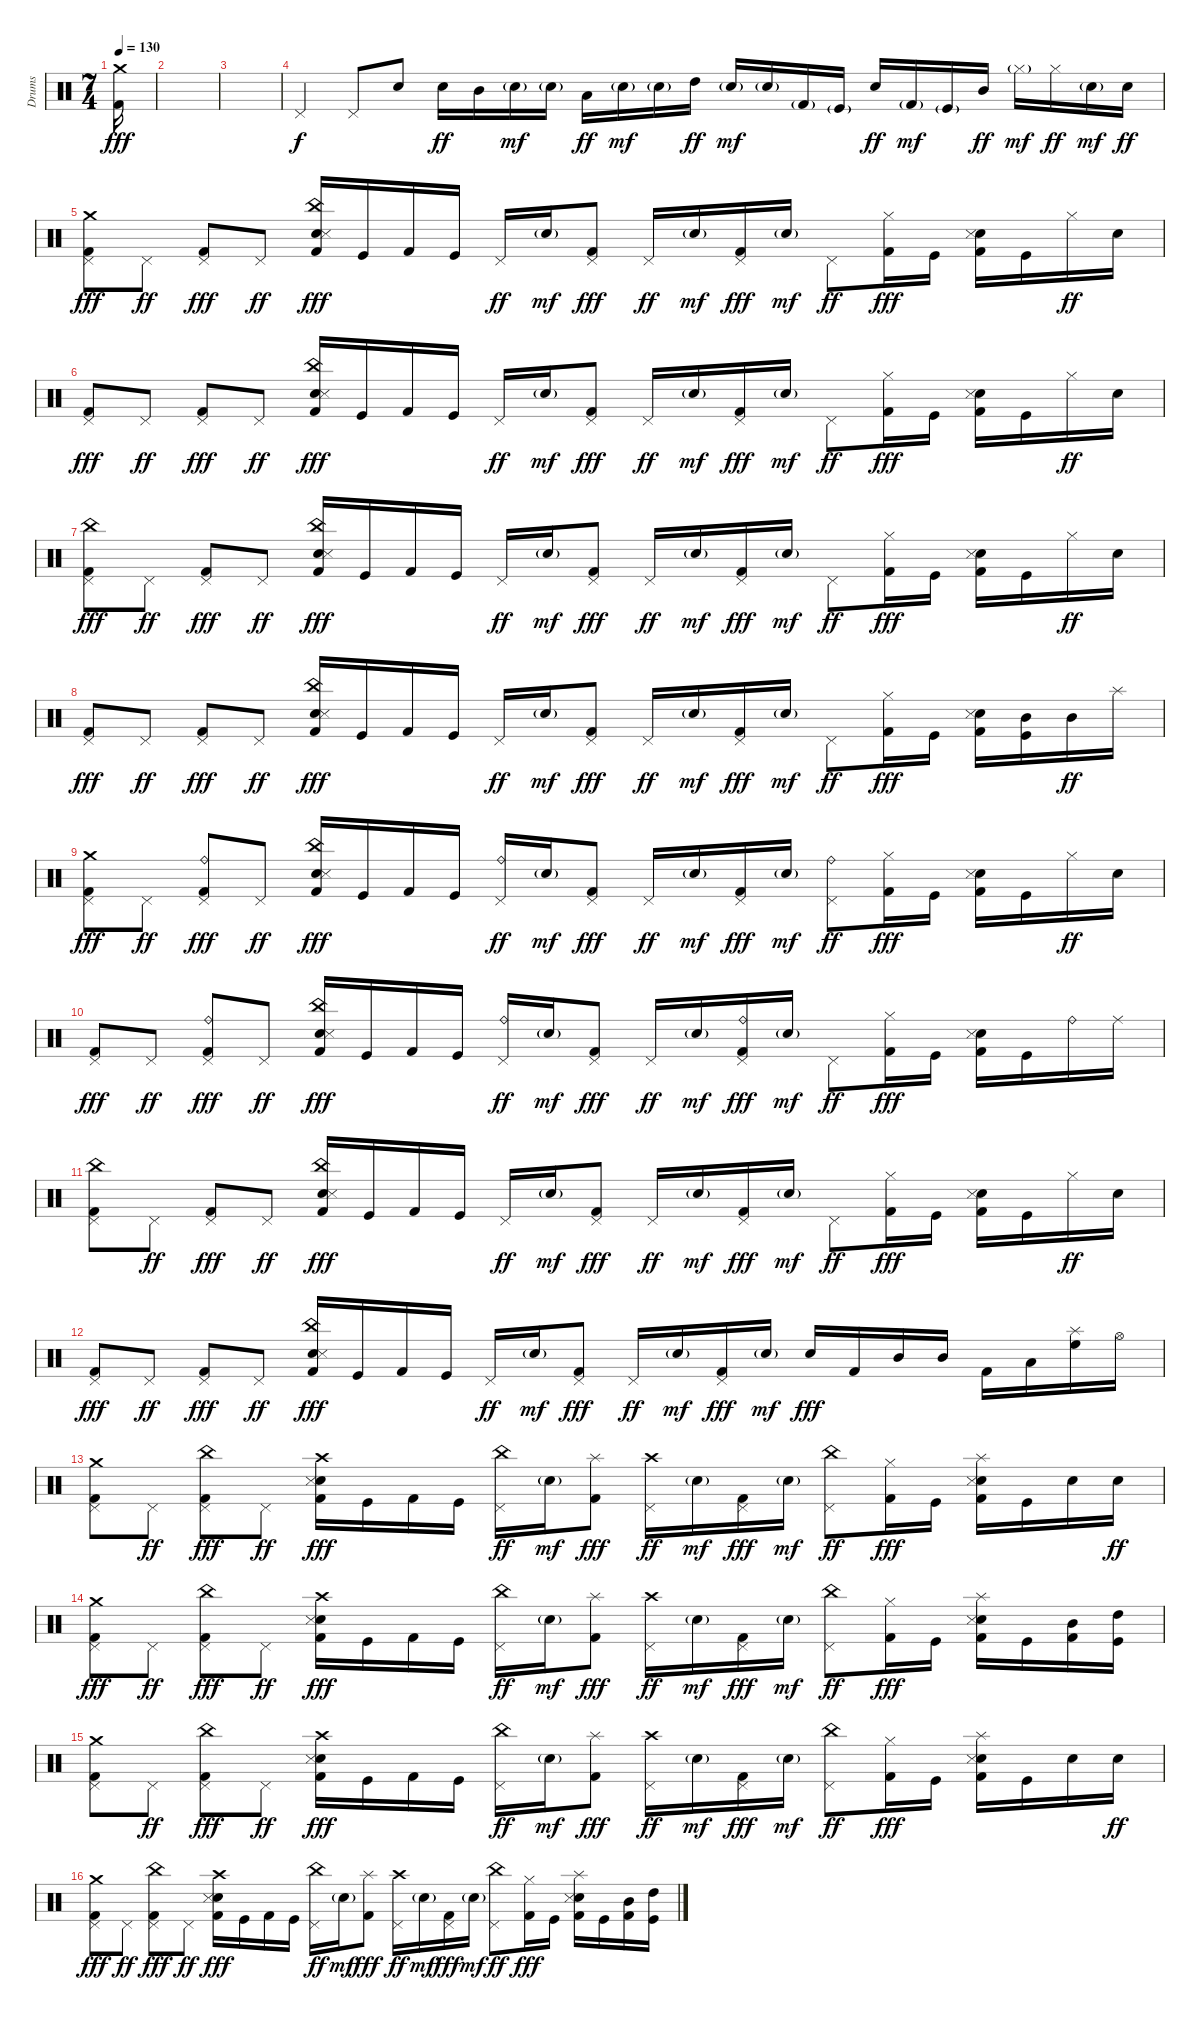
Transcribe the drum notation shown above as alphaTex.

\track ("Drums" "Drums") {instrument percussion}
\staff {score}
\articulation defaults
\ts (7 4)
\tempo 130
\clef neutral
\ks c
("Crash medium (hit)" "Kick (hit) 2").16{dy fff} |
|
|
"Pedal Hi-Hat (hit)".4{dy f} "Pedal Hi-Hat (hit)".8 "Snare (hit) 2".8 "Snare (hit) 2".16{dy ff} "Mid Tom (hit)".16 "Snare (hit) 2"{g}.16{dy mf} "Snare (hit) 2"{g}.16 "Low Tom (hit)".16{dy ff} "Snare (hit) 2"{g}.16{dy mf} "Snare (hit) 2"{g}.16 "High Tom (hit)".16{dy ff} "Snare (hit) 2"{g}.16{dy mf} "Snare (hit) 2"{g}.16 "Kick (hit) 2"{g}.16 "Kick (hit)"{g}.16 "Snare (hit) 2".16{dy ff} "Kick (hit) 2"{g}.16{dy mf} "Kick (hit)"{g}.16 "Mid Tom (hit)".16{dy ff} "Hi-Hat (closed)"{g}.16{dy mf} "Hi-Hat (closed)".16{dy ff} "Snare (hit) 2"{g}.16{dy mf} "Snare (hit) 2".16{dy ff} |
("Crash medium (hit)" "Pedal Hi-Hat (hit)" "Kick (hit) 2").8{dy fff} "Pedal Hi-Hat (hit)".8{dy ff} ("Pedal Hi-Hat (hit)" "Kick (hit) 2").8{dy fff} "Pedal Hi-Hat (hit)".8{dy ff} ("China (hit)" "Snare (hit) 2" "Snare (side stick) 3" "Kick (hit) 2").16{dy fff} "Kick (hit)".16 "Kick (hit) 2".16 "Kick (hit)".16 "Pedal Hi-Hat (hit)".16{dy ff} "Snare (hit) 2"{g}.16{dy mf} ("Pedal Hi-Hat (hit)" "Kick (hit) 2").8{dy fff} "Pedal Hi-Hat (hit)".16{dy ff} "Snare (hit) 2"{g}.16{dy mf} ("Pedal Hi-Hat (hit)" "Kick (hit) 2").16{dy fff} "Snare (hit) 2"{g}.16{dy mf} "Pedal Hi-Hat (hit)".8{dy ff} ("Hi-Hat (closed)" "Kick (hit) 2").16{dy fff} "Kick (hit)".16 ("Snare (hit) 2" "Snare (side stick) 3" "Kick (hit) 2").16 "Kick (hit)".16 "Hi-Hat (closed)".16{dy ff} "Snare (hit) 2".16 |
("Pedal Hi-Hat (hit)" "Kick (hit) 2").8{dy fff} "Pedal Hi-Hat (hit)".8{dy ff} ("Pedal Hi-Hat (hit)" "Kick (hit) 2").8{dy fff} "Pedal Hi-Hat (hit)".8{dy ff} ("China (hit)" "Snare (hit) 2" "Snare (side stick) 3" "Kick (hit) 2").16{dy fff} "Kick (hit)".16 "Kick (hit) 2".16 "Kick (hit)".16 "Pedal Hi-Hat (hit)".16{dy ff} "Snare (hit) 2"{g}.16{dy mf} ("Pedal Hi-Hat (hit)" "Kick (hit) 2").8{dy fff} "Pedal Hi-Hat (hit)".16{dy ff} "Snare (hit) 2"{g}.16{dy mf} ("Pedal Hi-Hat (hit)" "Kick (hit) 2").16{dy fff} "Snare (hit) 2"{g}.16{dy mf} "Pedal Hi-Hat (hit)".8{dy ff} ("Hi-Hat (closed)" "Kick (hit) 2").16{dy fff} "Kick (hit)".16 ("Snare (hit) 2" "Snare (side stick) 3" "Kick (hit) 2").16 "Kick (hit)".16 "Hi-Hat (closed)".16{dy ff} "Snare (hit) 2".16 |
("China (hit)" "Pedal Hi-Hat (hit)" "Kick (hit) 2").8{dy fff} "Pedal Hi-Hat (hit)".8{dy ff} ("Pedal Hi-Hat (hit)" "Kick (hit) 2").8{dy fff} "Pedal Hi-Hat (hit)".8{dy ff} ("China (hit)" "Snare (hit) 2" "Snare (side stick) 3" "Kick (hit) 2").16{dy fff} "Kick (hit)".16 "Kick (hit) 2".16 "Kick (hit)".16 "Pedal Hi-Hat (hit)".16{dy ff} "Snare (hit) 2"{g}.16{dy mf} ("Pedal Hi-Hat (hit)" "Kick (hit) 2").8{dy fff} "Pedal Hi-Hat (hit)".16{dy ff} "Snare (hit) 2"{g}.16{dy mf} ("Pedal Hi-Hat (hit)" "Kick (hit) 2").16{dy fff} "Snare (hit) 2"{g}.16{dy mf} "Pedal Hi-Hat (hit)".8{dy ff} ("Hi-Hat (closed)" "Kick (hit) 2").16{dy fff} "Kick (hit)".16 ("Snare (hit) 2" "Snare (side stick) 3" "Kick (hit) 2").16 "Kick (hit)".16 "Hi-Hat (closed)".16{dy ff} "Snare (hit) 2".16 |
("Pedal Hi-Hat (hit)" "Kick (hit) 2").8{dy fff} "Pedal Hi-Hat (hit)".8{dy ff} ("Pedal Hi-Hat (hit)" "Kick (hit) 2").8{dy fff} "Pedal Hi-Hat (hit)".8{dy ff} ("China (hit)" "Snare (hit) 2" "Snare (side stick) 3" "Kick (hit) 2").16{dy fff} "Kick (hit)".16 "Kick (hit) 2".16 "Kick (hit)".16 "Pedal Hi-Hat (hit)".16{dy ff} "Snare (hit) 2"{g}.16{dy mf} ("Pedal Hi-Hat (hit)" "Kick (hit) 2").8{dy fff} "Pedal Hi-Hat (hit)".16{dy ff} "Snare (hit) 2"{g}.16{dy mf} ("Pedal Hi-Hat (hit)" "Kick (hit) 2").16{dy fff} "Snare (hit) 2"{g}.16{dy mf} "Pedal Hi-Hat (hit)".8{dy ff} ("Hi-Hat (closed)" "Kick (hit) 2").16{dy fff} "Kick (hit)".16 ("Snare (hit) 2" "Snare (side stick) 3" "Kick (hit) 2").16 ("Mid Tom (hit)" "Kick (hit)").16 "Mid Tom (hit)".16{dy ff} "Splash (hit)".16 |
("Crash medium (hit)" "Pedal Hi-Hat (hit)" "Kick (hit) 2").8{dy fff} "Pedal Hi-Hat (hit)".8{dy ff} ("Ride (bell)" "Pedal Hi-Hat (hit)" "Kick (hit) 2").8{dy fff} "Pedal Hi-Hat (hit)".8{dy ff} ("China (hit)" "Snare (hit) 2" "Snare (side stick) 3" "Kick (hit) 2").16{dy fff} "Kick (hit)".16 "Kick (hit) 2".16 "Kick (hit)".16 ("Ride (bell)" "Pedal Hi-Hat (hit)").16{dy ff} "Snare (hit) 2"{g}.16{dy mf} ("Pedal Hi-Hat (hit)" "Kick (hit) 2").8{dy fff} "Pedal Hi-Hat (hit)".16{dy ff} "Snare (hit) 2"{g}.16{dy mf} ("Pedal Hi-Hat (hit)" "Kick (hit) 2").16{dy fff} "Snare (hit) 2"{g}.16{dy mf} ("Ride (bell)" "Pedal Hi-Hat (hit)").8{dy ff} ("Hi-Hat (closed)" "Kick (hit) 2").16{dy fff} "Kick (hit)".16 ("Snare (hit) 2" "Snare (side stick) 3" "Kick (hit) 2").16 "Kick (hit)".16 "Hi-Hat (closed)".16{dy ff} "Snare (hit) 2".16 |
("Pedal Hi-Hat (hit)" "Kick (hit) 2").8{dy fff} "Pedal Hi-Hat (hit)".8{dy ff} ("Ride (bell)" "Pedal Hi-Hat (hit)" "Kick (hit) 2").8{dy fff} "Pedal Hi-Hat (hit)".8{dy ff} ("China (hit)" "Snare (hit) 2" "Snare (side stick) 3" "Kick (hit) 2").16{dy fff} "Kick (hit)".16 "Kick (hit) 2".16 "Kick (hit)".16 ("Ride (bell)" "Pedal Hi-Hat (hit)").16{dy ff} "Snare (hit) 2"{g}.16{dy mf} ("Pedal Hi-Hat (hit)" "Kick (hit) 2").8{dy fff} "Pedal Hi-Hat (hit)".16{dy ff} "Snare (hit) 2"{g}.16{dy mf} ("Ride (bell)" "Pedal Hi-Hat (hit)" "Kick (hit) 2").16{dy fff} "Snare (hit) 2"{g}.16{dy mf} "Pedal Hi-Hat (hit)".8{dy ff} ("Hi-Hat (closed)" "Kick (hit) 2").16{dy fff} "Kick (hit)".16 ("Snare (hit) 2" "Snare (side stick) 3" "Kick (hit) 2").16 "Kick (hit)".16 "Ride (bell)".16 "Ride (middle)".16 |
("China (hit)" "Pedal Hi-Hat (hit)" "Kick (hit) 2").8 "Pedal Hi-Hat (hit)".8{dy ff} ("Pedal Hi-Hat (hit)" "Kick (hit) 2").8{dy fff} "Pedal Hi-Hat (hit)".8{dy ff} ("China (hit)" "Snare (hit) 2" "Snare (side stick) 3" "Kick (hit) 2").16{dy fff} "Kick (hit)".16 "Kick (hit) 2".16 "Kick (hit)".16 "Pedal Hi-Hat (hit)".16{dy ff} "Snare (hit) 2"{g}.16{dy mf} ("Pedal Hi-Hat (hit)" "Kick (hit) 2").8{dy fff} "Pedal Hi-Hat (hit)".16{dy ff} "Snare (hit) 2"{g}.16{dy mf} ("Pedal Hi-Hat (hit)" "Kick (hit) 2").16{dy fff} "Snare (hit) 2"{g}.16{dy mf} "Pedal Hi-Hat (hit)".8{dy ff} ("Hi-Hat (closed)" "Kick (hit) 2").16{dy fff} "Kick (hit)".16 ("Snare (hit) 2" "Snare (side stick) 3" "Kick (hit) 2").16 "Kick (hit)".16 "Hi-Hat (closed)".16{dy ff} "Snare (hit) 2".16 |
("Pedal Hi-Hat (hit)" "Kick (hit) 2").8{dy fff} "Pedal Hi-Hat (hit)".8{dy ff} ("Pedal Hi-Hat (hit)" "Kick (hit) 2").8{dy fff} "Pedal Hi-Hat (hit)".8{dy ff} ("China (hit)" "Snare (hit) 2" "Snare (side stick) 3" "Kick (hit) 2").16{dy fff} "Kick (hit)".16 "Kick (hit) 2".16 "Kick (hit)".16 "Pedal Hi-Hat (hit)".16{dy ff} "Snare (hit) 2"{g}.16{dy mf} ("Pedal Hi-Hat (hit)" "Kick (hit) 2").8{dy fff} "Pedal Hi-Hat (hit)".16{dy ff} "Snare (hit) 2"{g}.16{dy mf} ("Pedal Hi-Hat (hit)" "Kick (hit) 2").16{dy fff} "Snare (hit) 2"{g}.16{dy mf} "Snare (hit) 2".16{dy fff} "Kick (hit) 2".16 "Mid Tom (hit)".16 "Mid Tom (hit)".16 "Kick (hit) 2".16 "Low Tom (hit)".16 ("Splash (hit)" "High Floor Tom (hit)").16 "Hi-Hat (open)".16 |
("Crash medium (hit)" "Pedal Hi-Hat (hit)" "Kick (hit) 2").8 "Pedal Hi-Hat (hit)".8{dy ff} ("China (hit)" "Pedal Hi-Hat (hit)" "Kick (hit) 2").8{dy fff} "Pedal Hi-Hat (hit)".8{dy ff} ("Crash high (hit)" "Snare (hit) 2" "Snare (side stick) 3" "Kick (hit) 2").16{dy fff} "Kick (hit)".16 "Kick (hit) 2".16 "Kick (hit)".16 ("China (hit)" "Pedal Hi-Hat (hit)").16{dy ff} "Snare (hit) 2"{g}.16{dy mf} ("Splash (hit)" "Kick (hit) 2").8{dy fff} ("Crash high (hit)" "Pedal Hi-Hat (hit)").16{dy ff} "Snare (hit) 2"{g}.16{dy mf} ("Pedal Hi-Hat (hit)" "Kick (hit) 2").16{dy fff} "Snare (hit) 2"{g}.16{dy mf} ("China (hit)" "Pedal Hi-Hat (hit)").8{dy ff} ("Hi-Hat (closed)" "Kick (hit) 2").16{dy fff} "Kick (hit)".16 ("Splash (hit)" "Snare (hit) 2" "Snare (side stick) 3" "Kick (hit) 2").16 "Kick (hit)".16 "Snare (hit) 2".16 "Snare (hit) 2".16{dy ff} |
("Crash medium (hit)" "Pedal Hi-Hat (hit)" "Kick (hit) 2").8{dy fff} "Pedal Hi-Hat (hit)".8{dy ff} ("China (hit)" "Pedal Hi-Hat (hit)" "Kick (hit) 2").8{dy fff} "Pedal Hi-Hat (hit)".8{dy ff} ("Crash high (hit)" "Snare (hit) 2" "Snare (side stick) 3" "Kick (hit) 2").16{dy fff} "Kick (hit)".16 "Kick (hit) 2".16 "Kick (hit)".16 ("China (hit)" "Pedal Hi-Hat (hit)").16{dy ff} "Snare (hit) 2"{g}.16{dy mf} ("Splash (hit)" "Kick (hit) 2").8{dy fff} ("Crash high (hit)" "Pedal Hi-Hat (hit)").16{dy ff} "Snare (hit) 2"{g}.16{dy mf} ("Pedal Hi-Hat (hit)" "Kick (hit) 2").16{dy fff} "Snare (hit) 2"{g}.16{dy mf} ("China (hit)" "Pedal Hi-Hat (hit)").8{dy ff} ("Hi-Hat (closed)" "Kick (hit) 2").16{dy fff} "Kick (hit)".16 ("Splash (hit)" "Snare (hit) 2" "Snare (side stick) 3" "Kick (hit) 2").16 "Kick (hit)".16 ("Mid Tom (hit)" "Kick (hit) 2").16 ("High Tom (hit)" "Kick (hit)").16 |
("Crash medium (hit)" "Pedal Hi-Hat (hit)" "Kick (hit) 2").8 "Pedal Hi-Hat (hit)".8{dy ff} ("China (hit)" "Pedal Hi-Hat (hit)" "Kick (hit) 2").8{dy fff} "Pedal Hi-Hat (hit)".8{dy ff} ("Crash high (hit)" "Snare (hit) 2" "Snare (side stick) 3" "Kick (hit) 2").16{dy fff} "Kick (hit)".16 "Kick (hit) 2".16 "Kick (hit)".16 ("China (hit)" "Pedal Hi-Hat (hit)").16{dy ff} "Snare (hit) 2"{g}.16{dy mf} ("Splash (hit)" "Kick (hit) 2").8{dy fff} ("Crash high (hit)" "Pedal Hi-Hat (hit)").16{dy ff} "Snare (hit) 2"{g}.16{dy mf} ("Pedal Hi-Hat (hit)" "Kick (hit) 2").16{dy fff} "Snare (hit) 2"{g}.16{dy mf} ("China (hit)" "Pedal Hi-Hat (hit)").8{dy ff} ("Hi-Hat (closed)" "Kick (hit) 2").16{dy fff} "Kick (hit)".16 ("Splash (hit)" "Snare (hit) 2" "Snare (side stick) 3" "Kick (hit) 2").16 "Kick (hit)".16 "Snare (hit) 2".16 "Snare (hit) 2".16{dy ff} |
("Crash medium (hit)" "Pedal Hi-Hat (hit)" "Kick (hit) 2").8{dy fff} "Pedal Hi-Hat (hit)".8{dy ff} ("China (hit)" "Pedal Hi-Hat (hit)" "Kick (hit) 2").8{dy fff} "Pedal Hi-Hat (hit)".8{dy ff} ("Crash high (hit)" "Snare (hit) 2" "Snare (side stick) 3" "Kick (hit) 2").16{dy fff} "Kick (hit)".16 "Kick (hit) 2".16 "Kick (hit)".16 ("China (hit)" "Pedal Hi-Hat (hit)").16{dy ff} "Snare (hit) 2"{g}.16{dy mf} ("Splash (hit)" "Kick (hit) 2").8{dy fff} ("Crash high (hit)" "Pedal Hi-Hat (hit)").16{dy ff} "Snare (hit) 2"{g}.16{dy mf} ("Pedal Hi-Hat (hit)" "Kick (hit) 2").16{dy fff} "Snare (hit) 2"{g}.16{dy mf} ("China (hit)" "Pedal Hi-Hat (hit)").8{dy ff} ("Hi-Hat (closed)" "Kick (hit) 2").16{dy fff} "Kick (hit)".16 ("Splash (hit)" "Snare (hit) 2" "Snare (side stick) 3" "Kick (hit) 2").16 "Kick (hit)".16 ("Mid Tom (hit)" "Kick (hit) 2").16 ("High Tom (hit)" "Kick (hit)").16
